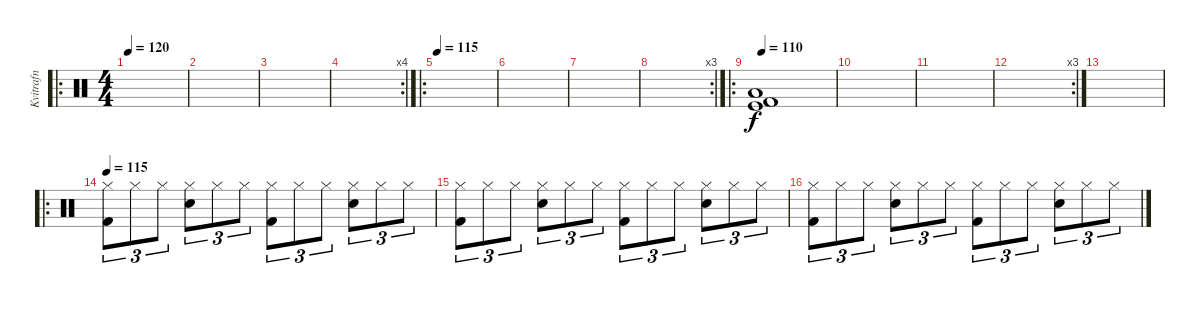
\track ("Kvitrafn" "Kvitrafn") {instrument percussion}
\staff {score}
\articulation defaults
\ro
\ts (4 4)
\tempo 120
\tempo 95
\tempo 120
\clef neutral
\ks c
|
|
|
\rc 4
|
\ro
\tempo 115
|
|
|
\rc 3
|
\ro
\tempo 110
("Kick (hit)" "Kick (hit) 2" "Low Floor Tom (hit)").1 |
|
|
\rc 3
|
|
\ro
\tempo 115
("Hi-Hat (closed)" "Kick (hit) 2").8{tu (3 2)} "Hi-Hat (closed)".8{tu (3 2)} "Hi-Hat (closed)".8{tu (3 2)} ("Hi-Hat (closed)" "Snare (hit) 2").8{tu (3 2)} "Hi-Hat (closed)".8{tu (3 2)} "Hi-Hat (closed)".8{tu (3 2)} ("Hi-Hat (closed)" "Kick (hit) 2").8{tu (3 2)} "Hi-Hat (closed)".8{tu (3 2)} "Hi-Hat (closed)".8{tu (3 2)} ("Hi-Hat (closed)" "Snare (hit) 2").8{tu (3 2)} "Hi-Hat (closed)".8{tu (3 2)} "Hi-Hat (closed)".8{tu (3 2)} |
("Hi-Hat (closed)" "Kick (hit) 2").8{tu (3 2)} "Hi-Hat (closed)".8{tu (3 2)} "Hi-Hat (closed)".8{tu (3 2)} ("Hi-Hat (closed)" "Snare (hit) 2").8{tu (3 2)} "Hi-Hat (closed)".8{tu (3 2)} "Hi-Hat (closed)".8{tu (3 2)} ("Hi-Hat (closed)" "Kick (hit) 2").8{tu (3 2)} "Hi-Hat (closed)".8{tu (3 2)} "Hi-Hat (closed)".8{tu (3 2)} ("Hi-Hat (closed)" "Snare (hit) 2").8{tu (3 2)} "Hi-Hat (closed)".8{tu (3 2)} "Hi-Hat (closed)".8{tu (3 2)} |
("Hi-Hat (closed)" "Kick (hit) 2").8{tu (3 2)} "Hi-Hat (closed)".8{tu (3 2)} "Hi-Hat (closed)".8{tu (3 2)} ("Hi-Hat (closed)" "Snare (hit) 2").8{tu (3 2)} "Hi-Hat (closed)".8{tu (3 2)} "Hi-Hat (closed)".8{tu (3 2)} ("Hi-Hat (closed)" "Kick (hit) 2").8{tu (3 2)} "Hi-Hat (closed)".8{tu (3 2)} "Hi-Hat (closed)".8{tu (3 2)} ("Hi-Hat (closed)" "Snare (hit) 2").8{tu (3 2)} "Hi-Hat (closed)".8{tu (3 2)} "Hi-Hat (closed)".8{tu (3 2)}
